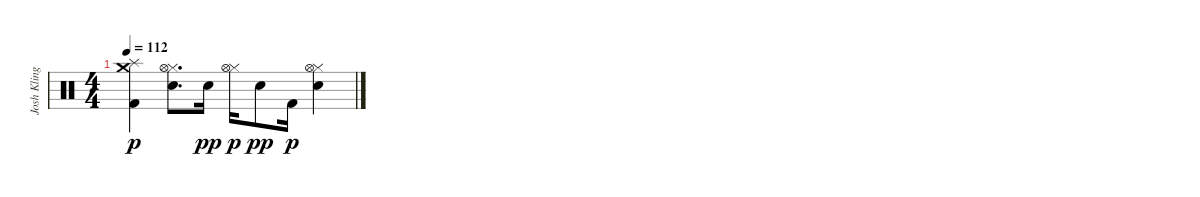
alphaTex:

\track ("Josh Klinghoffer " "Josh Kling") {instrument percussion}
\staff {score}
\articulation defaults
\ts (4 4)
\tempo 112
\clef neutral
\ks c
("Splash (hit)" "Crash medium (hit)" "Kick (hit) 2").4{dy p} ("Hi-Hat (closed)" "Hi-Hat (open)" "Electric Snare (hit)").8{d} "Electric Snare (hit)".16{dy pp} ("Hi-Hat (closed)" "Hi-Hat (open)").16{dy p} "Electric Snare (hit)".8{dy pp} "Kick (hit) 2".16{dy p} ("Hi-Hat (closed)" "Hi-Hat (open)" "Electric Snare (hit)").4
